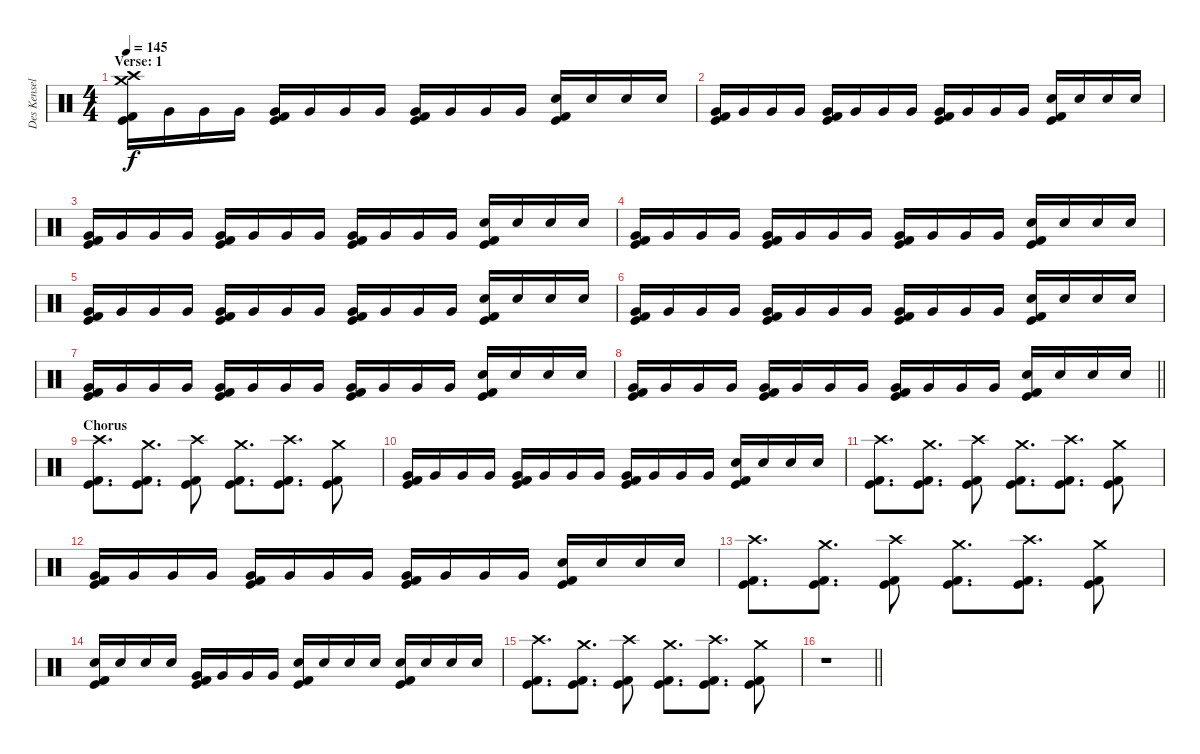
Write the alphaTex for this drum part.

\track ("Des Kensel" "Des Kensel") {instrument percussion}
\staff {score}
\articulation defaults
\ts (4 4)
\section ("" "Verse: 1")
\tempo 145
\clef neutral
\ks c
("Crash high (hit)" "Crash medium (hit)" "Kick (hit)" "Kick (hit) 2").16{dy f} "Very Low Tom (hit)".16 "Very Low Tom (hit)".16 "Very Low Tom (hit)".16 ("Very Low Tom (hit)" "Kick (hit)" "Kick (hit) 2").16 "Very Low Tom (hit)".16 "Very Low Tom (hit)".16 "Very Low Tom (hit)".16 ("Very Low Tom (hit)" "Kick (hit)" "Kick (hit) 2").16 "Very Low Tom (hit)".16 "Very Low Tom (hit)".16 "Very Low Tom (hit)".16 ("Electric Snare (hit)" "Kick (hit)" "Kick (hit) 2").16 "Electric Snare (hit)".16 "Electric Snare (hit)".16 "Electric Snare (hit)".16 |
("Very Low Tom (hit)" "Kick (hit)" "Kick (hit) 2").16 "Very Low Tom (hit)".16 "Very Low Tom (hit)".16 "Very Low Tom (hit)".16 ("Very Low Tom (hit)" "Kick (hit)" "Kick (hit) 2").16 "Very Low Tom (hit)".16 "Very Low Tom (hit)".16 "Very Low Tom (hit)".16 ("Very Low Tom (hit)" "Kick (hit)" "Kick (hit) 2").16 "Very Low Tom (hit)".16 "Very Low Tom (hit)".16 "Very Low Tom (hit)".16 ("Electric Snare (hit)" "Kick (hit)" "Kick (hit) 2").16 "Electric Snare (hit)".16 "Electric Snare (hit)".16 "Electric Snare (hit)".16 |
("Very Low Tom (hit)" "Kick (hit)" "Kick (hit) 2").16 "Very Low Tom (hit)".16 "Very Low Tom (hit)".16 "Very Low Tom (hit)".16 ("Very Low Tom (hit)" "Kick (hit)" "Kick (hit) 2").16 "Very Low Tom (hit)".16 "Very Low Tom (hit)".16 "Very Low Tom (hit)".16 ("Very Low Tom (hit)" "Kick (hit)" "Kick (hit) 2").16 "Very Low Tom (hit)".16 "Very Low Tom (hit)".16 "Very Low Tom (hit)".16 ("Electric Snare (hit)" "Kick (hit)" "Kick (hit) 2").16 "Electric Snare (hit)".16 "Electric Snare (hit)".16 "Electric Snare (hit)".16 |
("Very Low Tom (hit)" "Kick (hit)" "Kick (hit) 2").16 "Very Low Tom (hit)".16 "Very Low Tom (hit)".16 "Very Low Tom (hit)".16 ("Very Low Tom (hit)" "Kick (hit)" "Kick (hit) 2").16 "Very Low Tom (hit)".16 "Very Low Tom (hit)".16 "Very Low Tom (hit)".16 ("Very Low Tom (hit)" "Kick (hit)" "Kick (hit) 2").16 "Very Low Tom (hit)".16 "Very Low Tom (hit)".16 "Very Low Tom (hit)".16 ("Electric Snare (hit)" "Kick (hit)" "Kick (hit) 2").16 "Electric Snare (hit)".16 "Electric Snare (hit)".16 "Electric Snare (hit)".16 |
("Very Low Tom (hit)" "Kick (hit)" "Kick (hit) 2").16 "Very Low Tom (hit)".16 "Very Low Tom (hit)".16 "Very Low Tom (hit)".16 ("Very Low Tom (hit)" "Kick (hit)" "Kick (hit) 2").16 "Very Low Tom (hit)".16 "Very Low Tom (hit)".16 "Very Low Tom (hit)".16 ("Very Low Tom (hit)" "Kick (hit)" "Kick (hit) 2").16 "Very Low Tom (hit)".16 "Very Low Tom (hit)".16 "Very Low Tom (hit)".16 ("Electric Snare (hit)" "Kick (hit)" "Kick (hit) 2").16 "Electric Snare (hit)".16 "Electric Snare (hit)".16 "Electric Snare (hit)".16 |
("Very Low Tom (hit)" "Kick (hit)" "Kick (hit) 2").16 "Very Low Tom (hit)".16 "Very Low Tom (hit)".16 "Very Low Tom (hit)".16 ("Very Low Tom (hit)" "Kick (hit)" "Kick (hit) 2").16 "Very Low Tom (hit)".16 "Very Low Tom (hit)".16 "Very Low Tom (hit)".16 ("Very Low Tom (hit)" "Kick (hit)" "Kick (hit) 2").16 "Very Low Tom (hit)".16 "Very Low Tom (hit)".16 "Very Low Tom (hit)".16 ("Electric Snare (hit)" "Kick (hit)" "Kick (hit) 2").16 "Electric Snare (hit)".16 "Electric Snare (hit)".16 "Electric Snare (hit)".16 |
("Very Low Tom (hit)" "Kick (hit)" "Kick (hit) 2").16 "Very Low Tom (hit)".16 "Very Low Tom (hit)".16 "Very Low Tom (hit)".16 ("Very Low Tom (hit)" "Kick (hit)" "Kick (hit) 2").16 "Very Low Tom (hit)".16 "Very Low Tom (hit)".16 "Very Low Tom (hit)".16 ("Very Low Tom (hit)" "Kick (hit)" "Kick (hit) 2").16 "Very Low Tom (hit)".16 "Very Low Tom (hit)".16 "Very Low Tom (hit)".16 ("Electric Snare (hit)" "Kick (hit)" "Kick (hit) 2").16 "Electric Snare (hit)".16 "Electric Snare (hit)".16 "Electric Snare (hit)".16 |
\barLineRight lightlight
("Very Low Tom (hit)" "Kick (hit)" "Kick (hit) 2").16 "Very Low Tom (hit)".16 "Very Low Tom (hit)".16 "Very Low Tom (hit)".16 ("Very Low Tom (hit)" "Kick (hit)" "Kick (hit) 2").16 "Very Low Tom (hit)".16 "Very Low Tom (hit)".16 "Very Low Tom (hit)".16 ("Very Low Tom (hit)" "Kick (hit)" "Kick (hit) 2").16 "Very Low Tom (hit)".16 "Very Low Tom (hit)".16 "Very Low Tom (hit)".16 ("Electric Snare (hit)" "Kick (hit)" "Kick (hit) 2").16 "Electric Snare (hit)".16 "Electric Snare (hit)".16 "Electric Snare (hit)".16 |
\section ("" "Chorus")
("Crash high (hit)" "Kick (hit)" "Kick (hit) 2").8{d} ("Crash medium (hit)" "Kick (hit)" "Kick (hit) 2").8{d} ("Crash high (hit)" "Kick (hit)" "Kick (hit) 2").8 ("Crash medium (hit)" "Kick (hit)" "Kick (hit) 2").8{d} ("Crash high (hit)" "Kick (hit)" "Kick (hit) 2").8{d} ("Crash medium (hit)" "Kick (hit)" "Kick (hit) 2").8 |
("Very Low Tom (hit)" "Kick (hit)" "Kick (hit) 2").16 "Very Low Tom (hit)".16 "Very Low Tom (hit)".16 "Very Low Tom (hit)".16 ("Very Low Tom (hit)" "Kick (hit)" "Kick (hit) 2").16 "Very Low Tom (hit)".16 "Very Low Tom (hit)".16 "Very Low Tom (hit)".16 ("Very Low Tom (hit)" "Kick (hit)" "Kick (hit) 2").16 "Very Low Tom (hit)".16 "Very Low Tom (hit)".16 "Very Low Tom (hit)".16 ("Electric Snare (hit)" "Kick (hit)" "Kick (hit) 2").16 "Electric Snare (hit)".16 "Electric Snare (hit)".16 "Electric Snare (hit)".16 |
("Crash high (hit)" "Kick (hit)" "Kick (hit) 2").8{d} ("Crash medium (hit)" "Kick (hit)" "Kick (hit) 2").8{d} ("Crash high (hit)" "Kick (hit)" "Kick (hit) 2").8 ("Crash medium (hit)" "Kick (hit)" "Kick (hit) 2").8{d} ("Crash high (hit)" "Kick (hit)" "Kick (hit) 2").8{d} ("Crash medium (hit)" "Kick (hit)" "Kick (hit) 2").8 |
("Very Low Tom (hit)" "Kick (hit)" "Kick (hit) 2").16 "Very Low Tom (hit)".16 "Very Low Tom (hit)".16 "Very Low Tom (hit)".16 ("Very Low Tom (hit)" "Kick (hit)" "Kick (hit) 2").16 "Very Low Tom (hit)".16 "Very Low Tom (hit)".16 "Very Low Tom (hit)".16 ("Very Low Tom (hit)" "Kick (hit)" "Kick (hit) 2").16 "Very Low Tom (hit)".16 "Very Low Tom (hit)".16 "Very Low Tom (hit)".16 ("Electric Snare (hit)" "Kick (hit)" "Kick (hit) 2").16 "Electric Snare (hit)".16 "Electric Snare (hit)".16 "Electric Snare (hit)".16 |
("Crash high (hit)" "Kick (hit)" "Kick (hit) 2").8{d} ("Crash medium (hit)" "Kick (hit)" "Kick (hit) 2").8{d} ("Crash high (hit)" "Kick (hit)" "Kick (hit) 2").8 ("Crash medium (hit)" "Kick (hit)" "Kick (hit) 2").8{d} ("Crash high (hit)" "Kick (hit)" "Kick (hit) 2").8{d} ("Crash medium (hit)" "Kick (hit)" "Kick (hit) 2").8 |
("Electric Snare (hit)" "Kick (hit)" "Kick (hit) 2").16 "Electric Snare (hit)".16 "Electric Snare (hit)".16 "Electric Snare (hit)".16 ("Very Low Tom (hit)" "Kick (hit)" "Kick (hit) 2").16 "Very Low Tom (hit)".16 "Very Low Tom (hit)".16 "Very Low Tom (hit)".16 ("Electric Snare (hit)" "Kick (hit)" "Kick (hit) 2").16 "Electric Snare (hit)".16 "Electric Snare (hit)".16 "Electric Snare (hit)".16 ("Electric Snare (hit)" "Kick (hit)" "Kick (hit) 2").16 "Electric Snare (hit)".16 "Electric Snare (hit)".16 "Electric Snare (hit)".16 |
("Crash high (hit)" "Kick (hit)" "Kick (hit) 2").8{d} ("Crash medium (hit)" "Kick (hit)" "Kick (hit) 2").8{d} ("Crash high (hit)" "Kick (hit)" "Kick (hit) 2").8 ("Crash medium (hit)" "Kick (hit)" "Kick (hit) 2").8{d} ("Crash high (hit)" "Kick (hit)" "Kick (hit) 2").8{d} ("Crash medium (hit)" "Kick (hit)" "Kick (hit) 2").8 |
\barLineRight lightlight
r.1
